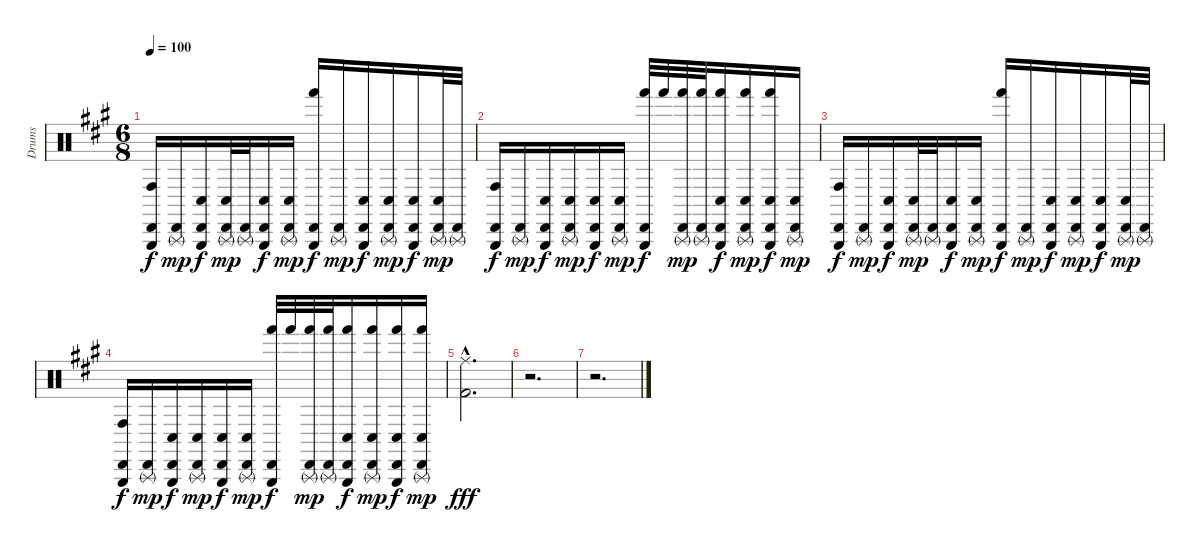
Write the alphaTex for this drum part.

\track ("Drums" "Drums") {instrument percussion}
\staff {score}
\articulation defaults
\ts (6 8)
\tempo 100
\clef neutral
\ks a
("Cabasa (hit)" "Triangle (hit)" "Conga high (hit)").16{dy f} ("Cabasa (hit)" "Triangle (rnute)").16{dy mp} ("Cabasa (hit)" "Triangle (hit)" "Conga low (hit)").16{dy f} ("Cabasa (hit)" "Triangle (rnute)" "Conga low (hit)").32{dy mp} ("Cabasa (hit)" "Triangle (rnute)").32 ("Cabasa (hit)" "Triangle (hit)" "Conga low (hit)").16{dy f} ("Cabasa (hit)" "Triangle (rnute)" "Conga low (hit)").16{dy mp} ("Cabasa (hit)" "Triangle (hit)" "Hand (hit)").16{dy f} ("Cabasa (hit)" "Triangle (rnute)").16{dy mp} ("Cabasa (hit)" "Triangle (hit)" "Conga low (hit)").16{dy f} ("Cabasa (hit)" "Triangle (rnute)" "Conga low (hit)").16{dy mp} ("Cabasa (hit)" "Triangle (hit)" "Conga low (hit)").16{dy f} ("Cabasa (hit)" "Triangle (rnute)" "Conga low (hit)").32{dy mp} ("Cabasa (hit)" "Triangle (rnute)").32 |
("Cabasa (hit)" "Triangle (hit)" "Conga high (hit)").16{dy f} ("Cabasa (hit)" "Triangle (rnute)").16{dy mp} ("Cabasa (hit)" "Triangle (hit)" "Conga low (hit)").16{dy f} ("Cabasa (hit)" "Triangle (rnute)" "Conga low (hit)").16{dy mp} ("Cabasa (hit)" "Triangle (hit)" "Conga low (hit)").16{dy f} ("Cabasa (hit)" "Triangle (rnute)" "Conga low (hit)").16{dy mp} ("Cabasa (hit)" "Triangle (hit)" "Hand (hit)").32{dy f} "Hand (hit)".32 ("Cabasa (hit)" "Triangle (rnute)" "Hand (hit)").32{dy mp} ("Cabasa (hit)" "Triangle (rnute)" "Hand (hit)").32 ("Cabasa (hit)" "Triangle (hit)" "Hand (hit)" "Conga low (hit)").16{dy f} ("Cabasa (hit)" "Triangle (rnute)" "Hand (hit)" "Conga low (hit)").16{dy mp} ("Cabasa (hit)" "Triangle (hit)" "Hand (hit)" "Conga low (hit)").16{dy f} ("Cabasa (hit)" "Triangle (rnute)" "Conga low (hit)").16{dy mp} |
("Cabasa (hit)" "Triangle (hit)" "Conga high (hit)").16{dy f} ("Cabasa (hit)" "Triangle (rnute)").16{dy mp} ("Cabasa (hit)" "Triangle (hit)" "Conga low (hit)").16{dy f} ("Cabasa (hit)" "Triangle (rnute)" "Conga low (hit)").32{dy mp} ("Cabasa (hit)" "Triangle (rnute)").32 ("Cabasa (hit)" "Triangle (hit)" "Conga low (hit)").16{dy f} ("Cabasa (hit)" "Triangle (rnute)" "Conga low (hit)").16{dy mp} ("Cabasa (hit)" "Triangle (hit)" "Hand (hit)").16{dy f} ("Cabasa (hit)" "Triangle (rnute)").16{dy mp} ("Cabasa (hit)" "Triangle (hit)" "Conga low (hit)").16{dy f} ("Cabasa (hit)" "Triangle (rnute)" "Conga low (hit)").16{dy mp} ("Cabasa (hit)" "Triangle (hit)" "Conga low (hit)").16{dy f} ("Cabasa (hit)" "Triangle (rnute)" "Conga low (hit)").32{dy mp} ("Cabasa (hit)" "Triangle (rnute)").32 |
("Cabasa (hit)" "Triangle (hit)" "Conga high (hit)").16{dy f} ("Cabasa (hit)" "Triangle (rnute)").16{dy mp} ("Cabasa (hit)" "Triangle (hit)" "Conga low (hit)").16{dy f} ("Cabasa (hit)" "Triangle (rnute)" "Conga low (hit)").16{dy mp} ("Cabasa (hit)" "Triangle (hit)" "Conga low (hit)").16{dy f} ("Cabasa (hit)" "Triangle (rnute)" "Conga low (hit)").16{dy mp} ("Cabasa (hit)" "Triangle (hit)" "Hand (hit)").32{dy f} "Hand (hit)".32 ("Cabasa (hit)" "Triangle (rnute)" "Hand (hit)").32{dy mp} ("Cabasa (hit)" "Triangle (rnute)" "Hand (hit)").32 ("Cabasa (hit)" "Triangle (hit)" "Hand (hit)" "Conga low (hit)").16{dy f} ("Cabasa (hit)" "Triangle (rnute)" "Hand (hit)" "Conga low (hit)").16{dy mp} ("Cabasa (hit)" "Triangle (hit)" "Hand (hit)" "Conga low (hit)").16{dy f} ("Cabasa (hit)" "Triangle (rnute)" "Hand (hit)" "Conga low (hit)").16{dy mp} |
("Ride (middle)"{hac} "Kick (hit) 2"{hac}).2{d dy fff} |
r.2{d} |
r.2{d}
